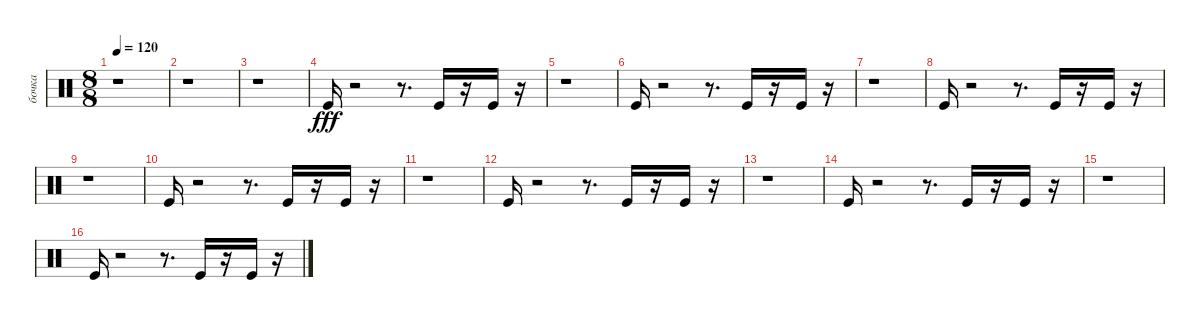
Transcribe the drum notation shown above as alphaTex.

\track ("бочка" "бочка") {instrument percussion}
\staff {score}
\articulation defaults
\ts (8 8)
\tempo 120
\clef neutral
\ks c
r.1{dy fff} |
r.1 |
r.1 |
"Kick (hit)".16 r.2 r.8{d} "Kick (hit)".16 r.16 "Kick (hit)".16 r.16 |
r.1 |
"Kick (hit)".16 r.2 r.8{d} "Kick (hit)".16 r.16 "Kick (hit)".16 r.16 |
r.1 |
"Kick (hit)".16 r.2 r.8{d} "Kick (hit)".16 r.16 "Kick (hit)".16 r.16 |
r.1 |
"Kick (hit)".16 r.2 r.8{d} "Kick (hit)".16 r.16 "Kick (hit)".16 r.16 |
r.1 |
"Kick (hit)".16 r.2 r.8{d} "Kick (hit)".16{volume 16} r.16 "Kick (hit)".16{volume 16} r.16 |
r.1 |
"Kick (hit)".16{volume 13} r.2 r.8{d} "Kick (hit)".16{volume 11} r.16 "Kick (hit)".16{volume 11} r.16 |
r.1 |
"Kick (hit)".16{volume 9} r.2 r.8{d} "Kick (hit)".16{volume 7} r.16 "Kick (hit)".16 r.16
